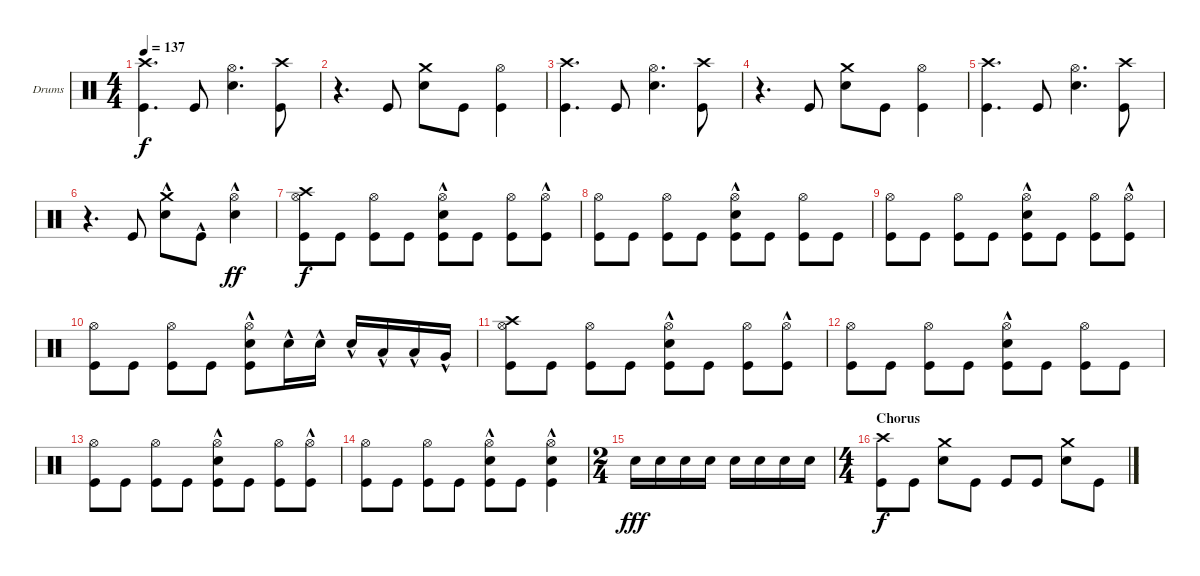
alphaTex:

\defaultSystemsLayout 4
\bracketExtendMode groupsimilarinstruments
\firstSystemTrackNameOrientation horizontal
\otherSystemsTrackNameOrientation horizontal
\track ("Drumkit - Paul" "Drums") {instrument percussion}
\staff {score}
\articulation defaults
\ts (4 4)
\tempo 137
\clef neutral
\ks c
("Crash high (hit)" "Kick (hit)").4{d dy f} "Kick (hit)".8 ("Snare (hit) 2" "Hi-Hat (open)").4{d} ("Kick (hit)" "Crash high (hit)").8 |
r.4{d} "Kick (hit)".8 ("Snare (hit) 2" "Crash medium (hit)").8 "Kick (hit)".8 ("Kick (hit)" "Hi-Hat (open)").4 |
("Crash high (hit)" "Kick (hit)").4{d} "Kick (hit)".8 ("Snare (hit) 2" "Hi-Hat (open)").4{d} ("Kick (hit)" "Crash high (hit)").8 |
r.4{d} "Kick (hit)".8 ("Snare (hit) 2" "Crash medium (hit)").8 "Kick (hit)".8 ("Kick (hit)" "Hi-Hat (open)").4 |
("Crash high (hit)" "Kick (hit)").4{d} "Kick (hit)".8 ("Snare (hit) 2" "Hi-Hat (open)").4{d} ("Kick (hit)" "Crash high (hit)").8 |
r.4{d} "Kick (hit)".8 ("Snare (hit) 2"{hac} "Crash medium (hit)").8 "Kick (hit)"{hac}.8 ("Hi-Hat (open)" "Snare (hit) 2"{hac}).4{dy ff} |
("Kick (hit)" "Hi-Hat (open)" "Crash high (hit)").8{dy f} "Kick (hit)".8 ("Kick (hit)" "Hi-Hat (open)").8 "Kick (hit)".8 ("Kick (hit)" "Snare (hit) 2"{hac} "Hi-Hat (open)").8 "Kick (hit)".8 ("Kick (hit)" "Hi-Hat (open)").8 ("Kick (hit)" "Hi-Hat (open)"{hac}).8 |
("Kick (hit)" "Hi-Hat (open)").8 "Kick (hit)".8 ("Kick (hit)" "Hi-Hat (open)").8 "Kick (hit)".8 ("Kick (hit)" "Snare (hit) 2"{hac} "Hi-Hat (open)").8 "Kick (hit)".8 ("Kick (hit)" "Hi-Hat (open)").8 "Kick (hit)".8 |
("Kick (hit)" "Hi-Hat (open)").8 "Kick (hit)".8 ("Kick (hit)" "Hi-Hat (open)").8 "Kick (hit)".8 ("Kick (hit)" "Hi-Hat (open)" "Snare (hit) 2"{hac}).8 "Kick (hit)".8 ("Kick (hit)" "Hi-Hat (open)").8 ("Kick (hit)" "Hi-Hat (open)"{hac}).8 |
("Kick (hit)" "Hi-Hat (open)").8 "Kick (hit)".8 ("Kick (hit)" "Hi-Hat (open)").8 "Kick (hit)".8 ("Kick (hit)" "Hi-Hat (open)" "Snare (hit) 2"{hac}).8 "Snare (hit) 2"{hac}.16 "Snare (hit) 2"{hac}.16 "Snare (hit) 2"{hac}.16 "Low Tom (hit)"{hac}.16 "Low Tom (hit)"{hac}.16 "Very Low Tom (hit)"{hac}.16 |
("Kick (hit)" "Hi-Hat (open)" "Crash high (hit)").8 "Kick (hit)".8 ("Kick (hit)" "Hi-Hat (open)").8 "Kick (hit)".8 ("Kick (hit)" "Snare (hit) 2"{hac} "Hi-Hat (open)").8 "Kick (hit)".8 ("Kick (hit)" "Hi-Hat (open)").8 ("Kick (hit)" "Hi-Hat (open)"{hac}).8 |
("Kick (hit)" "Hi-Hat (open)").8 "Kick (hit)".8 ("Kick (hit)" "Hi-Hat (open)").8 "Kick (hit)".8 ("Kick (hit)" "Snare (hit) 2"{hac} "Hi-Hat (open)").8 "Kick (hit)".8 ("Kick (hit)" "Hi-Hat (open)").8 "Kick (hit)".8 |
("Kick (hit)" "Hi-Hat (open)").8 "Kick (hit)".8 ("Kick (hit)" "Hi-Hat (open)").8 "Kick (hit)".8 ("Kick (hit)" "Hi-Hat (open)" "Snare (hit) 2"{hac}).8 "Kick (hit)".8 ("Kick (hit)" "Hi-Hat (open)").8 ("Kick (hit)" "Hi-Hat (open)"{hac}).8 |
("Kick (hit)" "Hi-Hat (open)").8 "Kick (hit)".8 ("Kick (hit)" "Hi-Hat (open)").8 "Kick (hit)".8 ("Kick (hit)" "Hi-Hat (open)" "Snare (hit) 2"{hac}).8 "Kick (hit)".8 ("Kick (hit)" "Hi-Hat (open)" "Snare (hit) 2"{hac}).4 |
\ts (2 4)
"Snare (hit) 2".16{dy fff} "Snare (hit) 2".16 "Snare (hit) 2".16 "Snare (hit) 2".16 "Snare (hit) 2".16 "Snare (hit) 2".16 "Snare (hit) 2".16 "Snare (hit) 2".16 |
\ts (4 4)
\section ("" "Chorus")
("Kick (hit)" "Crash high (hit)").8{dy f} "Kick (hit)".8 ("Snare (hit) 2" "Crash medium (hit)").8 "Kick (hit)".8 "Kick (hit)".8 "Kick (hit)".8 ("Snare (hit) 2" "Crash medium (hit)").8 "Kick (hit)".8
